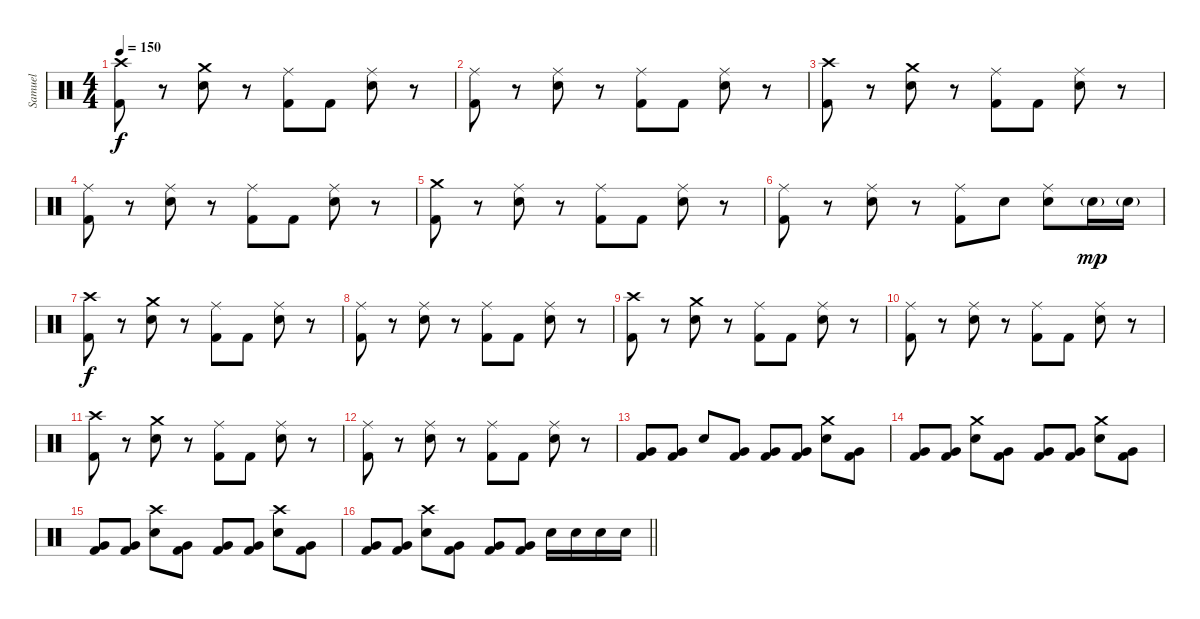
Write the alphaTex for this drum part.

\track ("Samuel" "Samuel") {instrument percussion}
\staff {score}
\articulation defaults
\ts (4 4)
\tempo 150
\clef neutral
\ks c
("Crash high (hit)" "Kick (hit) 2").8{dy f} r.8 ("Crash medium (hit)" "Snare (hit) 2").8 r.8 ("Ride (middle)" "Kick (hit) 2").8 "Kick (hit) 2".8 ("Ride (middle)" "Snare (hit) 2").8 r.8 |
("Ride (middle)" "Kick (hit) 2").8 r.8 ("Ride (middle)" "Snare (hit) 2").8 r.8 ("Ride (middle)" "Kick (hit) 2").8 "Kick (hit) 2".8 ("Ride (middle)" "Snare (hit) 2").8 r.8 |
("Crash high (hit)" "Kick (hit) 2").8 r.8 ("Crash medium (hit)" "Snare (hit) 2").8 r.8 ("Ride (middle)" "Kick (hit) 2").8 "Kick (hit) 2".8 ("Ride (middle)" "Snare (hit) 2").8 r.8 |
("Ride (middle)" "Kick (hit) 2").8 r.8 ("Ride (middle)" "Snare (hit) 2").8 r.8 ("Ride (middle)" "Kick (hit) 2").8 "Kick (hit) 2".8 ("Ride (middle)" "Snare (hit) 2").8 r.8 |
("Crash medium (hit)" "Kick (hit) 2").8 r.8 ("Ride (middle)" "Snare (hit) 2").8 r.8 ("Ride (middle)" "Kick (hit) 2").8 "Kick (hit) 2".8 ("Ride (middle)" "Snare (hit) 2").8 r.8 |
("Ride (middle)" "Kick (hit) 2").8 r.8 ("Ride (middle)" "Snare (hit) 2").8 r.8 ("Ride (middle)" "Kick (hit) 2").8 "Snare (hit) 2".8 ("Ride (middle)" "Snare (hit) 2").8 "Snare (hit) 2"{g}.16{dy mp} "Snare (hit) 2"{g}.16 |
("Crash high (hit)" "Kick (hit) 2").8{dy f} r.8 ("Crash medium (hit)" "Snare (hit) 2").8 r.8 ("Ride (middle)" "Kick (hit) 2").8 "Kick (hit) 2".8 ("Ride (middle)" "Snare (hit) 2").8 r.8 |
("Ride (middle)" "Kick (hit) 2").8 r.8 ("Ride (middle)" "Snare (hit) 2").8 r.8 ("Ride (middle)" "Kick (hit) 2").8 "Kick (hit) 2".8 ("Ride (middle)" "Snare (hit) 2").8 r.8 |
("Crash high (hit)" "Kick (hit) 2").8 r.8 ("Crash medium (hit)" "Snare (hit) 2").8 r.8 ("Ride (middle)" "Kick (hit) 2").8 "Kick (hit) 2".8 ("Ride (middle)" "Snare (hit) 2").8 r.8 |
("Ride (middle)" "Kick (hit) 2").8 r.8 ("Ride (middle)" "Snare (hit) 2").8 r.8 ("Ride (middle)" "Kick (hit) 2").8 "Kick (hit) 2".8 ("Ride (middle)" "Snare (hit) 2").8 r.8 |
("Crash high (hit)" "Kick (hit) 2").8 r.8 ("Crash medium (hit)" "Snare (hit) 2").8 r.8 ("Ride (middle)" "Kick (hit) 2").8 "Kick (hit) 2".8 ("Ride (middle)" "Snare (hit) 2").8 r.8 |
("Ride (middle)" "Kick (hit) 2").8 r.8 ("Ride (middle)" "Snare (hit) 2").8 r.8 ("Ride (middle)" "Kick (hit) 2").8 "Kick (hit) 2".8 ("Ride (middle)" "Snare (hit) 2").8 r.8 |
("Very Low Tom (hit)" "Kick (hit) 2").8 ("Very Low Tom (hit)" "Kick (hit) 2").8 "Snare (hit) 2".8 ("Very Low Tom (hit)" "Kick (hit) 2").8 ("Very Low Tom (hit)" "Kick (hit) 2").8 ("Very Low Tom (hit)" "Kick (hit) 2").8 ("Crash medium (hit)" "Snare (hit) 2").8 ("Very Low Tom (hit)" "Kick (hit) 2").8 |
("Very Low Tom (hit)" "Kick (hit) 2").8 ("Very Low Tom (hit)" "Kick (hit) 2").8 ("Crash medium (hit)" "Snare (hit) 2").8 ("Very Low Tom (hit)" "Kick (hit) 2").8 ("Very Low Tom (hit)" "Kick (hit) 2").8 ("Very Low Tom (hit)" "Kick (hit) 2").8 ("Crash medium (hit)" "Snare (hit) 2").8 ("Very Low Tom (hit)" "Kick (hit) 2").8 |
("Very Low Tom (hit)" "Kick (hit) 2").8 ("Very Low Tom (hit)" "Kick (hit) 2").8 ("Crash high (hit)" "Snare (hit) 2").8 ("Very Low Tom (hit)" "Kick (hit) 2").8 ("Very Low Tom (hit)" "Kick (hit) 2").8 ("Very Low Tom (hit)" "Kick (hit) 2").8 ("Crash high (hit)" "Snare (hit) 2").8 ("Very Low Tom (hit)" "Kick (hit) 2").8 |
\barLineRight lightlight
("Very Low Tom (hit)" "Kick (hit) 2").8 ("Very Low Tom (hit)" "Kick (hit) 2").8 ("Crash high (hit)" "Snare (hit) 2").8 ("Very Low Tom (hit)" "Kick (hit) 2").8 ("Very Low Tom (hit)" "Kick (hit) 2").8 ("Very Low Tom (hit)" "Kick (hit) 2").8 "Snare (hit) 2".16 "Snare (hit) 2".16 "Snare (hit) 2".16 "Snare (hit) 2".16
